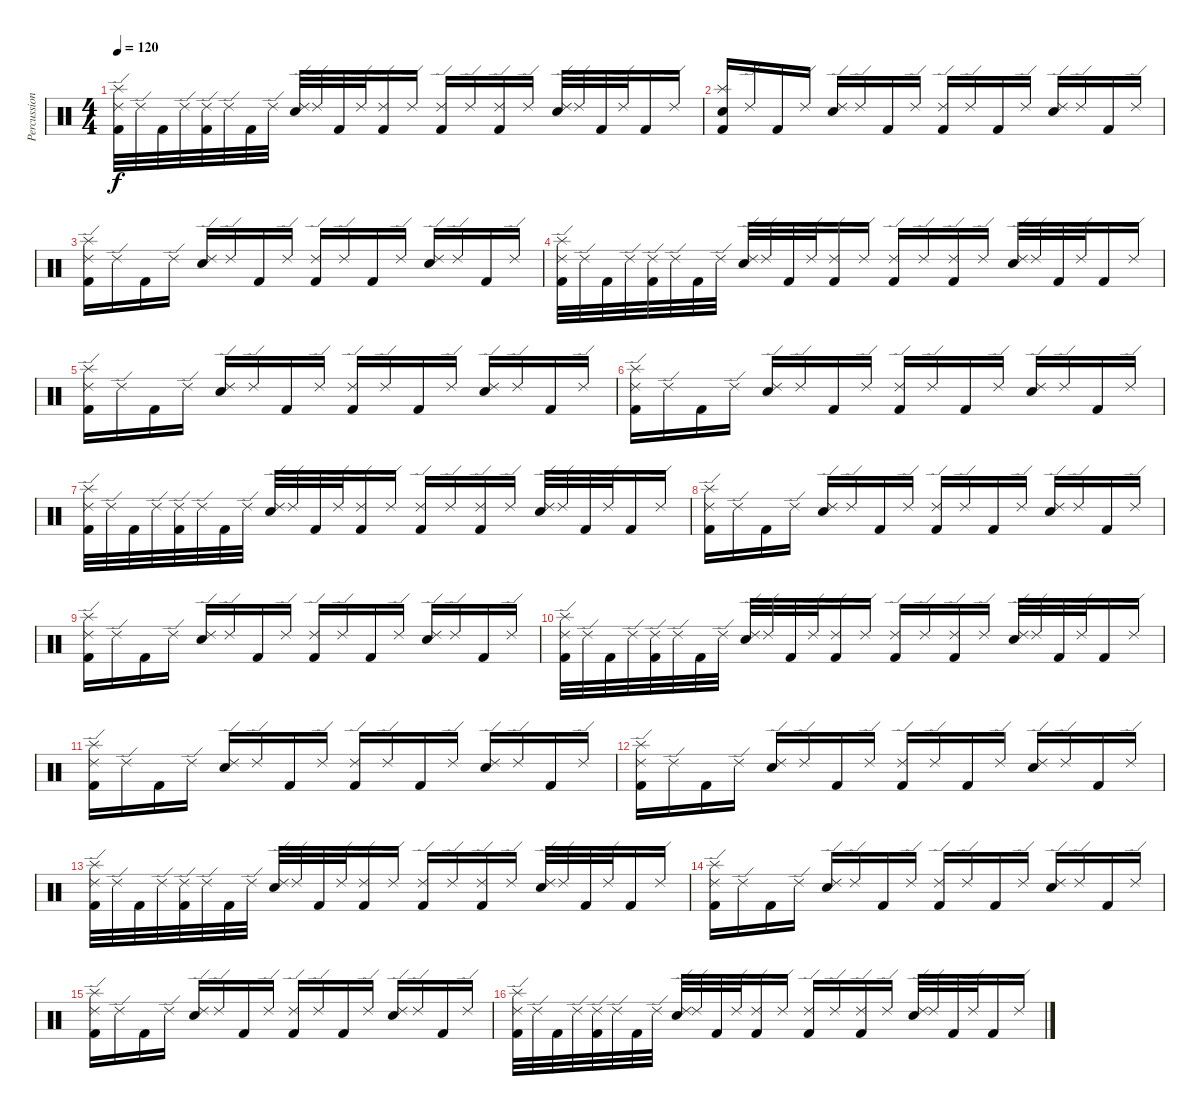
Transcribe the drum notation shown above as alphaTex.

\track ("Percussion" "Percussion") {instrument percussion}
\staff {score}
\articulation defaults
\ts (4 4)
\tempo 120
\clef neutral
\ks c
("Ride (edge) 2" "Kick (hit) 2" "Splash (hit)").32{dy f} "Ride (edge) 2".32 "Kick (hit) 2".32 "Ride (edge) 2".32 ("Kick (hit) 2" "Ride (edge) 2").32 "Ride (edge) 2".32 "Kick (hit) 2".32 "Ride (edge) 2".32 ("Ride (edge) 2" "Snare (hit) 2").32 "Ride (edge) 2".32 "Kick (hit) 2".32 "Ride (edge) 2".32 ("Kick (hit) 2" "Ride (edge) 2").16 "Ride (edge) 2".16 ("Kick (hit) 2" "Ride (edge) 2").16 "Ride (edge) 2".16 ("Ride (edge) 2" "Kick (hit) 2").16 "Ride (edge) 2".16 ("Snare (hit) 2" "Ride (edge) 2").32 "Ride (edge) 2".32 "Kick (hit) 2".32 "Ride (edge) 2".32 "Kick (hit) 2".16 "Ride (edge) 2".16 |
("Snare (hit)" "Kick (hit) 2" "Splash (hit)").16 "Ride (edge) 2".16 "Kick (hit) 2".16 "Ride (edge) 2".16 ("Snare (hit) 2" "Ride (edge) 2").16 "Ride (edge) 2".16 "Kick (hit) 2".16 "Ride (edge) 2".16 ("Ride (edge) 2" "Kick (hit) 2").16 "Ride (edge) 2".16 "Kick (hit) 2".16 "Ride (edge) 2".16 ("Snare (hit) 2" "Ride (edge) 2").16 "Ride (edge) 2".16 "Kick (hit) 2".16 "Ride (edge) 2".16 |
("Ride (edge) 2" "Kick (hit) 2" "Splash (hit)").16 "Ride (edge) 2".16 "Kick (hit) 2".16 "Ride (edge) 2".16 ("Snare (hit) 2" "Ride (edge) 2").16 "Ride (edge) 2".16 "Kick (hit) 2".16 "Ride (edge) 2".16 ("Ride (edge) 2" "Kick (hit) 2").16 "Ride (edge) 2".16 "Kick (hit) 2".16 "Ride (edge) 2".16 ("Snare (hit) 2" "Ride (edge) 2").16 "Ride (edge) 2".16 "Kick (hit) 2".16 "Ride (edge) 2".16 |
("Ride (edge) 2" "Kick (hit) 2" "Splash (hit)").32 "Ride (edge) 2".32 "Kick (hit) 2".32 "Ride (edge) 2".32 ("Kick (hit) 2" "Ride (edge) 2").32 "Ride (edge) 2".32 "Kick (hit) 2".32 "Ride (edge) 2".32 ("Ride (edge) 2" "Snare (hit) 2").32 "Ride (edge) 2".32 "Kick (hit) 2".32 "Ride (edge) 2".32 ("Kick (hit) 2" "Ride (edge) 2").16 "Ride (edge) 2".16 ("Kick (hit) 2" "Ride (edge) 2").16 "Ride (edge) 2".16 ("Ride (edge) 2" "Kick (hit) 2").16 "Ride (edge) 2".16 ("Snare (hit) 2" "Ride (edge) 2").32 "Ride (edge) 2".32 "Kick (hit) 2".32 "Ride (edge) 2".32 "Kick (hit) 2".16 "Ride (edge) 2".16 |
("Ride (edge) 2" "Kick (hit) 2" "Splash (hit)").16 "Ride (edge) 2".16 "Kick (hit) 2".16 "Ride (edge) 2".16 ("Snare (hit) 2" "Ride (edge) 2").16 "Ride (edge) 2".16 "Kick (hit) 2".16 "Ride (edge) 2".16 ("Ride (edge) 2" "Kick (hit) 2").16 "Ride (edge) 2".16 "Kick (hit) 2".16 "Ride (edge) 2".16 ("Snare (hit) 2" "Ride (edge) 2").16 "Ride (edge) 2".16 "Kick (hit) 2".16 "Ride (edge) 2".16 |
("Ride (edge) 2" "Kick (hit) 2" "Splash (hit)").16 "Ride (edge) 2".16 "Kick (hit) 2".16 "Ride (edge) 2".16 ("Snare (hit) 2" "Ride (edge) 2").16 "Ride (edge) 2".16 "Kick (hit) 2".16 "Ride (edge) 2".16 ("Ride (edge) 2" "Kick (hit) 2").16 "Ride (edge) 2".16 "Kick (hit) 2".16 "Ride (edge) 2".16 ("Snare (hit) 2" "Ride (edge) 2").16 "Ride (edge) 2".16 "Kick (hit) 2".16 "Ride (edge) 2".16 |
("Ride (edge) 2" "Kick (hit) 2" "Splash (hit)").32 "Ride (edge) 2".32 "Kick (hit) 2".32 "Ride (edge) 2".32 ("Kick (hit) 2" "Ride (edge) 2").32 "Ride (edge) 2".32 "Kick (hit) 2".32 "Ride (edge) 2".32 ("Ride (edge) 2" "Snare (hit) 2").32 "Ride (edge) 2".32 "Kick (hit) 2".32 "Ride (edge) 2".32 ("Kick (hit) 2" "Ride (edge) 2").16 "Ride (edge) 2".16 ("Kick (hit) 2" "Ride (edge) 2").16 "Ride (edge) 2".16 ("Ride (edge) 2" "Kick (hit) 2").16 "Ride (edge) 2".16 ("Snare (hit) 2" "Ride (edge) 2").32 "Ride (edge) 2".32 "Kick (hit) 2".32 "Ride (edge) 2".32 "Kick (hit) 2".16 "Ride (edge) 2".16 |
("Ride (edge) 2" "Kick (hit) 2" "Splash (hit)").16 "Ride (edge) 2".16 "Kick (hit) 2".16 "Ride (edge) 2".16 ("Snare (hit) 2" "Ride (edge) 2").16 "Ride (edge) 2".16 "Kick (hit) 2".16 "Ride (edge) 2".16 ("Ride (edge) 2" "Kick (hit) 2").16 "Ride (edge) 2".16 "Kick (hit) 2".16 "Ride (edge) 2".16 ("Snare (hit) 2" "Ride (edge) 2").16 "Ride (edge) 2".16 "Kick (hit) 2".16 "Ride (edge) 2".16 |
("Ride (edge) 2" "Kick (hit) 2" "Splash (hit)").16 "Ride (edge) 2".16 "Kick (hit) 2".16 "Ride (edge) 2".16 ("Snare (hit) 2" "Ride (edge) 2").16 "Ride (edge) 2".16 "Kick (hit) 2".16 "Ride (edge) 2".16 ("Ride (edge) 2" "Kick (hit) 2").16 "Ride (edge) 2".16 "Kick (hit) 2".16 "Ride (edge) 2".16 ("Snare (hit) 2" "Ride (edge) 2").16 "Ride (edge) 2".16 "Kick (hit) 2".16 "Ride (edge) 2".16 |
("Ride (edge) 2" "Kick (hit) 2" "Splash (hit)").32 "Ride (edge) 2".32 "Kick (hit) 2".32 "Ride (edge) 2".32 ("Kick (hit) 2" "Ride (edge) 2").32 "Ride (edge) 2".32 "Kick (hit) 2".32 "Ride (edge) 2".32 ("Ride (edge) 2" "Snare (hit) 2").32 "Ride (edge) 2".32 "Kick (hit) 2".32 "Ride (edge) 2".32 ("Kick (hit) 2" "Ride (edge) 2").16 "Ride (edge) 2".16 ("Kick (hit) 2" "Ride (edge) 2").16 "Ride (edge) 2".16 ("Ride (edge) 2" "Kick (hit) 2").16 "Ride (edge) 2".16 ("Snare (hit) 2" "Ride (edge) 2").32 "Ride (edge) 2".32 "Kick (hit) 2".32 "Ride (edge) 2".32 "Kick (hit) 2".16 "Ride (edge) 2".16 |
("Ride (edge) 2" "Kick (hit) 2" "Splash (hit)").16 "Ride (edge) 2".16 "Kick (hit) 2".16 "Ride (edge) 2".16 ("Snare (hit) 2" "Ride (edge) 2").16 "Ride (edge) 2".16 "Kick (hit) 2".16 "Ride (edge) 2".16 ("Ride (edge) 2" "Kick (hit) 2").16 "Ride (edge) 2".16 "Kick (hit) 2".16 "Ride (edge) 2".16 ("Snare (hit) 2" "Ride (edge) 2").16 "Ride (edge) 2".16 "Kick (hit) 2".16 "Ride (edge) 2".16 |
("Ride (edge) 2" "Kick (hit) 2" "Splash (hit)").16 "Ride (edge) 2".16 "Kick (hit) 2".16 "Ride (edge) 2".16 ("Snare (hit) 2" "Ride (edge) 2").16 "Ride (edge) 2".16 "Kick (hit) 2".16 "Ride (edge) 2".16 ("Ride (edge) 2" "Kick (hit) 2").16 "Ride (edge) 2".16 "Kick (hit) 2".16 "Ride (edge) 2".16 ("Snare (hit) 2" "Ride (edge) 2").16 "Ride (edge) 2".16 "Kick (hit) 2".16 "Ride (edge) 2".16 |
("Ride (edge) 2" "Kick (hit) 2" "Splash (hit)").32 "Ride (edge) 2".32 "Kick (hit) 2".32 "Ride (edge) 2".32 ("Kick (hit) 2" "Ride (edge) 2").32 "Ride (edge) 2".32 "Kick (hit) 2".32 "Ride (edge) 2".32 ("Ride (edge) 2" "Snare (hit) 2").32 "Ride (edge) 2".32 "Kick (hit) 2".32 "Ride (edge) 2".32 ("Kick (hit) 2" "Ride (edge) 2").16 "Ride (edge) 2".16 ("Kick (hit) 2" "Ride (edge) 2").16 "Ride (edge) 2".16 ("Ride (edge) 2" "Kick (hit) 2").16 "Ride (edge) 2".16 ("Snare (hit) 2" "Ride (edge) 2").32 "Ride (edge) 2".32 "Kick (hit) 2".32 "Ride (edge) 2".32 "Kick (hit) 2".16 "Ride (edge) 2".16 |
("Ride (edge) 2" "Kick (hit) 2" "Splash (hit)").16 "Ride (edge) 2".16 "Kick (hit) 2".16 "Ride (edge) 2".16 ("Snare (hit) 2" "Ride (edge) 2").16 "Ride (edge) 2".16 "Kick (hit) 2".16 "Ride (edge) 2".16 ("Ride (edge) 2" "Kick (hit) 2").16 "Ride (edge) 2".16 "Kick (hit) 2".16 "Ride (edge) 2".16 ("Snare (hit) 2" "Ride (edge) 2").16 "Ride (edge) 2".16 "Kick (hit) 2".16 "Ride (edge) 2".16 |
("Ride (edge) 2" "Kick (hit) 2" "Splash (hit)").16 "Ride (edge) 2".16 "Kick (hit) 2".16 "Ride (edge) 2".16 ("Snare (hit) 2" "Ride (edge) 2").16 "Ride (edge) 2".16 "Kick (hit) 2".16 "Ride (edge) 2".16 ("Ride (edge) 2" "Kick (hit) 2").16 "Ride (edge) 2".16 "Kick (hit) 2".16 "Ride (edge) 2".16 ("Snare (hit) 2" "Ride (edge) 2").16 "Ride (edge) 2".16 "Kick (hit) 2".16 "Ride (edge) 2".16 |
("Ride (edge) 2" "Kick (hit) 2" "Splash (hit)").32 "Ride (edge) 2".32 "Kick (hit) 2".32 "Ride (edge) 2".32 ("Kick (hit) 2" "Ride (edge) 2").32 "Ride (edge) 2".32 "Kick (hit) 2".32 "Ride (edge) 2".32 ("Ride (edge) 2" "Snare (hit) 2").32 "Ride (edge) 2".32 "Kick (hit) 2".32 "Ride (edge) 2".32 ("Kick (hit) 2" "Ride (edge) 2").16 "Ride (edge) 2".16 ("Kick (hit) 2" "Ride (edge) 2").16 "Ride (edge) 2".16 ("Ride (edge) 2" "Kick (hit) 2").16 "Ride (edge) 2".16 ("Snare (hit) 2" "Ride (edge) 2").32 "Ride (edge) 2".32 "Kick (hit) 2".32 "Ride (edge) 2".32 "Kick (hit) 2".16 "Ride (edge) 2".16
